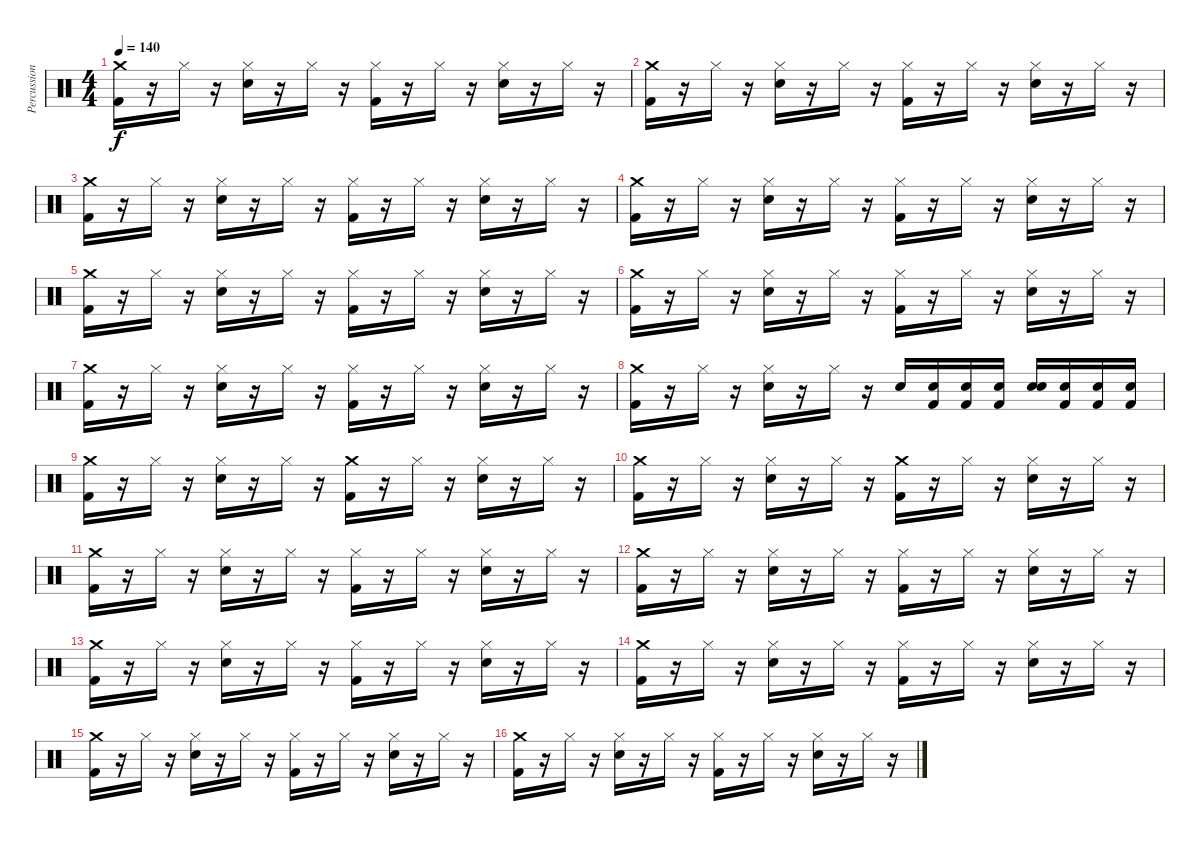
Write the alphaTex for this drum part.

\track ("Percussion" "Percussion") {instrument percussion}
\staff {score}
\articulation defaults
\ts (4 4)
\tempo 140
\clef neutral
\ks c
("Crash medium (hit)" "Kick (hit) 2").16{dy f} r.16 "Hi-Hat (closed)".16 r.16 ("Hi-Hat (closed)" "Snare (hit) 2").16 r.16 "Hi-Hat (closed)".16 r.16 ("Hi-Hat (closed)" "Kick (hit) 2").16 r.16 "Hi-Hat (closed)".16 r.16 ("Hi-Hat (closed)" "Snare (hit) 2").16 r.16 "Hi-Hat (closed)".16 r.16 |
("Crash medium (hit)" "Kick (hit) 2").16 r.16 "Hi-Hat (closed)".16 r.16 ("Hi-Hat (closed)" "Snare (hit) 2").16 r.16 "Hi-Hat (closed)".16 r.16 ("Hi-Hat (closed)" "Kick (hit) 2").16 r.16 "Hi-Hat (closed)".16 r.16 ("Hi-Hat (closed)" "Snare (hit) 2").16 r.16 "Hi-Hat (closed)".16 r.16 |
("Crash medium (hit)" "Kick (hit) 2").16 r.16 "Hi-Hat (closed)".16 r.16 ("Hi-Hat (closed)" "Snare (hit) 2").16 r.16 "Hi-Hat (closed)".16 r.16 ("Hi-Hat (closed)" "Kick (hit) 2").16 r.16 "Hi-Hat (closed)".16 r.16 ("Hi-Hat (closed)" "Snare (hit) 2").16 r.16 "Hi-Hat (closed)".16 r.16 |
("Crash medium (hit)" "Kick (hit) 2").16 r.16 "Hi-Hat (closed)".16 r.16 ("Hi-Hat (closed)" "Snare (hit) 2").16 r.16 "Hi-Hat (closed)".16 r.16 ("Hi-Hat (closed)" "Kick (hit) 2").16 r.16 "Hi-Hat (closed)".16 r.16 ("Hi-Hat (closed)" "Snare (hit) 2").16 r.16 "Hi-Hat (closed)".16 r.16 |
("Crash medium (hit)" "Kick (hit) 2").16 r.16 "Hi-Hat (closed)".16 r.16 ("Hi-Hat (closed)" "Snare (hit) 2").16 r.16 "Hi-Hat (closed)".16 r.16 ("Hi-Hat (closed)" "Kick (hit) 2").16 r.16 "Hi-Hat (closed)".16 r.16 ("Hi-Hat (closed)" "Snare (hit) 2").16 r.16 "Hi-Hat (closed)".16 r.16 |
("Crash medium (hit)" "Kick (hit) 2").16 r.16 "Hi-Hat (closed)".16 r.16 ("Hi-Hat (closed)" "Snare (hit) 2").16 r.16 "Hi-Hat (closed)".16 r.16 ("Hi-Hat (closed)" "Kick (hit) 2").16 r.16 "Hi-Hat (closed)".16 r.16 ("Hi-Hat (closed)" "Snare (hit) 2").16 r.16 "Hi-Hat (closed)".16 r.16 |
("Crash medium (hit)" "Kick (hit) 2").16 r.16 "Hi-Hat (closed)".16 r.16 ("Hi-Hat (closed)" "Snare (hit) 2").16 r.16 "Hi-Hat (closed)".16 r.16 ("Hi-Hat (closed)" "Kick (hit) 2").16 r.16 "Hi-Hat (closed)".16 r.16 ("Hi-Hat (closed)" "Snare (hit) 2").16 r.16 "Hi-Hat (closed)".16 r.16 |
("Crash medium (hit)" "Kick (hit) 2").16 r.16 "Hi-Hat (closed)".16 r.16 ("Hi-Hat (closed)" "Snare (hit) 2").16 r.16 "Hi-Hat (closed)".16 r.16 "Snare (hit) 2".16 ("Snare (hit) 2" "Kick (hit) 2").16 ("Snare (hit) 2" "Kick (hit) 2").16 ("Snare (hit) 2" "Kick (hit) 2").16 ("Snare (hit) 2" "Snare (hit) 2").16 ("Snare (hit) 2" "Kick (hit) 2").16 ("Snare (hit) 2" "Kick (hit) 2").16 ("Snare (hit) 2" "Kick (hit) 2").16 |
("Crash medium (hit)" "Kick (hit) 2").16 r.16 "Hi-Hat (closed)".16 r.16 ("Hi-Hat (closed)" "Snare (hit) 2").16 r.16 "Hi-Hat (closed)".16 r.16 ("Crash medium (hit)" "Kick (hit) 2").16 r.16 "Hi-Hat (closed)".16 r.16 ("Hi-Hat (closed)" "Snare (hit) 2").16 r.16 "Hi-Hat (closed)".16 r.16 |
("Crash medium (hit)" "Kick (hit) 2").16 r.16 "Hi-Hat (closed)".16 r.16 ("Hi-Hat (closed)" "Snare (hit) 2").16 r.16 "Hi-Hat (closed)".16 r.16 ("Crash medium (hit)" "Kick (hit) 2").16 r.16 "Hi-Hat (closed)".16 r.16 ("Hi-Hat (closed)" "Snare (hit) 2").16 r.16 "Hi-Hat (closed)".16 r.16 |
("Crash medium (hit)" "Kick (hit) 2").16 r.16 "Hi-Hat (closed)".16 r.16 ("Hi-Hat (closed)" "Snare (hit) 2").16 r.16 "Hi-Hat (closed)".16 r.16 ("Hi-Hat (closed)" "Kick (hit) 2").16 r.16 "Hi-Hat (closed)".16 r.16 ("Hi-Hat (closed)" "Snare (hit) 2").16 r.16 "Hi-Hat (closed)".16 r.16 |
("Crash medium (hit)" "Kick (hit) 2").16 r.16 "Hi-Hat (closed)".16 r.16 ("Hi-Hat (closed)" "Snare (hit) 2").16 r.16 "Hi-Hat (closed)".16 r.16 ("Hi-Hat (closed)" "Kick (hit) 2").16 r.16 "Hi-Hat (closed)".16 r.16 ("Hi-Hat (closed)" "Snare (hit) 2").16 r.16 "Hi-Hat (closed)".16 r.16 |
("Crash medium (hit)" "Kick (hit) 2").16 r.16 "Hi-Hat (closed)".16 r.16 ("Hi-Hat (closed)" "Snare (hit) 2").16 r.16 "Hi-Hat (closed)".16 r.16 ("Hi-Hat (closed)" "Kick (hit) 2").16 r.16 "Hi-Hat (closed)".16 r.16 ("Hi-Hat (closed)" "Snare (hit) 2").16 r.16 "Hi-Hat (closed)".16 r.16 |
("Crash medium (hit)" "Kick (hit) 2").16 r.16 "Hi-Hat (closed)".16 r.16 ("Hi-Hat (closed)" "Snare (hit) 2").16 r.16 "Hi-Hat (closed)".16 r.16 ("Hi-Hat (closed)" "Kick (hit) 2").16 r.16 "Hi-Hat (closed)".16 r.16 ("Hi-Hat (closed)" "Snare (hit) 2").16 r.16 "Hi-Hat (closed)".16 r.16 |
("Crash medium (hit)" "Kick (hit) 2").16 r.16 "Hi-Hat (closed)".16 r.16 ("Hi-Hat (closed)" "Snare (hit) 2").16 r.16 "Hi-Hat (closed)".16 r.16 ("Hi-Hat (closed)" "Kick (hit) 2").16 r.16 "Hi-Hat (closed)".16 r.16 ("Hi-Hat (closed)" "Snare (hit) 2").16 r.16 "Hi-Hat (closed)".16 r.16 |
("Crash medium (hit)" "Kick (hit) 2").16 r.16 "Hi-Hat (closed)".16 r.16 ("Hi-Hat (closed)" "Snare (hit) 2").16 r.16 "Hi-Hat (closed)".16 r.16 ("Hi-Hat (closed)" "Kick (hit) 2").16 r.16 "Hi-Hat (closed)".16 r.16 ("Hi-Hat (closed)" "Snare (hit) 2").16 r.16 "Hi-Hat (closed)".16 r.16
